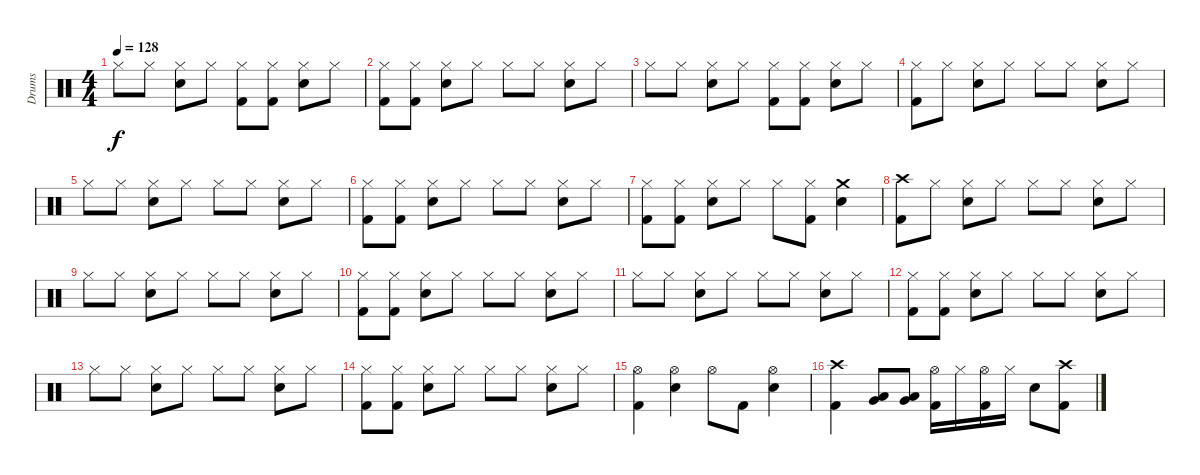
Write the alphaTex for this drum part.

\track ("Drums" "Drums") {instrument percussion}
\staff {score}
\articulation defaults
\ts (4 4)
\tempo 128
\clef neutral
\ks c "Hi-Hat (closed)".8{dy f} "Hi-Hat (closed)".8
("Electric Snare (hit)" "Hi-Hat (closed)").8 "Hi-Hat (closed)".8 ("Kick (hit) 2" "Hi-Hat (closed)").8 ("Kick (hit) 2" "Hi-Hat (closed)").8 ("Electric Snare (hit)" "Hi-Hat (closed)").8 "Hi-Hat (closed)".8 |
("Kick (hit) 2" "Hi-Hat (closed)").8 ("Kick (hit) 2" "Hi-Hat (closed)").8 ("Electric Snare (hit)" "Hi-Hat (closed)").8 "Hi-Hat (closed)".8 "Hi-Hat (closed)".8 "Hi-Hat (closed)".8 ("Electric Snare (hit)" "Hi-Hat (closed)").8 "Hi-Hat (closed)".8 |
"Hi-Hat (closed)".8 "Hi-Hat (closed)".8 ("Electric Snare (hit)" "Hi-Hat (closed)").8 "Hi-Hat (closed)".8 ("Kick (hit) 2" "Hi-Hat (closed)").8 ("Kick (hit) 2" "Hi-Hat (closed)").8 ("Electric Snare (hit)" "Hi-Hat (closed)").8 "Hi-Hat (closed)".8 |
("Kick (hit) 2" "Hi-Hat (closed)").8 "Hi-Hat (closed)".8 ("Electric Snare (hit)" "Hi-Hat (closed)").8 "Hi-Hat (closed)".8 "Hi-Hat (closed)".8 "Hi-Hat (closed)".8 ("Electric Snare (hit)" "Hi-Hat (closed)").8 "Hi-Hat (closed)".8 |
"Hi-Hat (closed)".8 "Hi-Hat (closed)".8 ("Electric Snare (hit)" "Hi-Hat (closed)").8 "Hi-Hat (closed)".8 "Hi-Hat (closed)".8 "Hi-Hat (closed)".8 ("Electric Snare (hit)" "Hi-Hat (closed)").8 "Hi-Hat (closed)".8 |
("Kick (hit) 2" "Hi-Hat (closed)").8 ("Kick (hit) 2" "Hi-Hat (closed)").8 ("Electric Snare (hit)" "Hi-Hat (closed)").8 "Hi-Hat (closed)".8 "Hi-Hat (closed)".8 "Hi-Hat (closed)".8 ("Electric Snare (hit)" "Hi-Hat (closed)").8 "Hi-Hat (closed)".8 |
("Kick (hit) 2" "Hi-Hat (closed)").8 ("Kick (hit) 2" "Hi-Hat (closed)").8 ("Electric Snare (hit)" "Hi-Hat (closed)").8 "Hi-Hat (closed)".8 "Hi-Hat (closed)".8 ("Kick (hit) 2" "Hi-Hat (closed)").8 ("Electric Snare (hit)" "Crash medium (hit)").4 |
("Kick (hit) 2" "Crash high (hit)").8 "Hi-Hat (closed)".8 ("Electric Snare (hit)" "Hi-Hat (closed)").8 "Hi-Hat (closed)".8 "Hi-Hat (closed)".8 "Hi-Hat (closed)".8 ("Electric Snare (hit)" "Hi-Hat (closed)").8 "Hi-Hat (closed)".8 |
"Hi-Hat (closed)".8 "Hi-Hat (closed)".8 ("Electric Snare (hit)" "Hi-Hat (closed)").8 "Hi-Hat (closed)".8 "Hi-Hat (closed)".8 "Hi-Hat (closed)".8 ("Electric Snare (hit)" "Hi-Hat (closed)").8 "Hi-Hat (closed)".8 |
("Kick (hit) 2" "Hi-Hat (closed)").8 ("Kick (hit) 2" "Hi-Hat (closed)").8 ("Electric Snare (hit)" "Hi-Hat (closed)").8 "Hi-Hat (closed)".8 "Hi-Hat (closed)".8 "Hi-Hat (closed)".8 ("Electric Snare (hit)" "Hi-Hat (closed)").8 "Hi-Hat (closed)".8 |
"Hi-Hat (closed)".8 "Hi-Hat (closed)".8 ("Electric Snare (hit)" "Hi-Hat (closed)").8 "Hi-Hat (closed)".8 "Hi-Hat (closed)".8 "Hi-Hat (closed)".8 ("Electric Snare (hit)" "Hi-Hat (closed)").8 "Hi-Hat (closed)".8 |
("Kick (hit) 2" "Hi-Hat (closed)").8 ("Kick (hit) 2" "Hi-Hat (closed)").8 ("Electric Snare (hit)" "Hi-Hat (closed)").8 "Hi-Hat (closed)".8 "Hi-Hat (closed)".8 "Hi-Hat (closed)".8 ("Electric Snare (hit)" "Hi-Hat (closed)").8 "Hi-Hat (closed)".8 |
"Hi-Hat (closed)".8 "Hi-Hat (closed)".8 ("Electric Snare (hit)" "Hi-Hat (closed)").8 "Hi-Hat (closed)".8 "Hi-Hat (closed)".8 "Hi-Hat (closed)".8 ("Electric Snare (hit)" "Hi-Hat (closed)").8 "Hi-Hat (closed)".8 |
("Kick (hit) 2" "Hi-Hat (closed)").8 ("Kick (hit) 2" "Hi-Hat (closed)").8 ("Electric Snare (hit)" "Hi-Hat (closed)").8 "Hi-Hat (closed)".8 "Hi-Hat (closed)".8 "Hi-Hat (closed)".8 ("Electric Snare (hit)" "Hi-Hat (closed)").8 "Hi-Hat (closed)".8 |
("Kick (hit) 2" "Hi-Hat (open)").4 ("Electric Snare (hit)" "Hi-Hat (open)").4 "Hi-Hat (open)".8 "Kick (hit) 2".8 ("Electric Snare (hit)" "Hi-Hat (open)").4 |
("Kick (hit) 2" "Crash high (hit)").4 ("Very Low Tom (hit)" "Low Floor Tom (hit)").8 ("Very Low Tom (hit)" "Low Floor Tom (hit)").8 ("Kick (hit) 2" "Hi-Hat (open)").16 "Hi-Hat (closed)".16 ("Kick (hit) 2" "Hi-Hat (open)").16 "Hi-Hat (closed)".16 "Electric Snare (hit)".8 ("Kick (hit) 2" "Crash high (hit)").8
